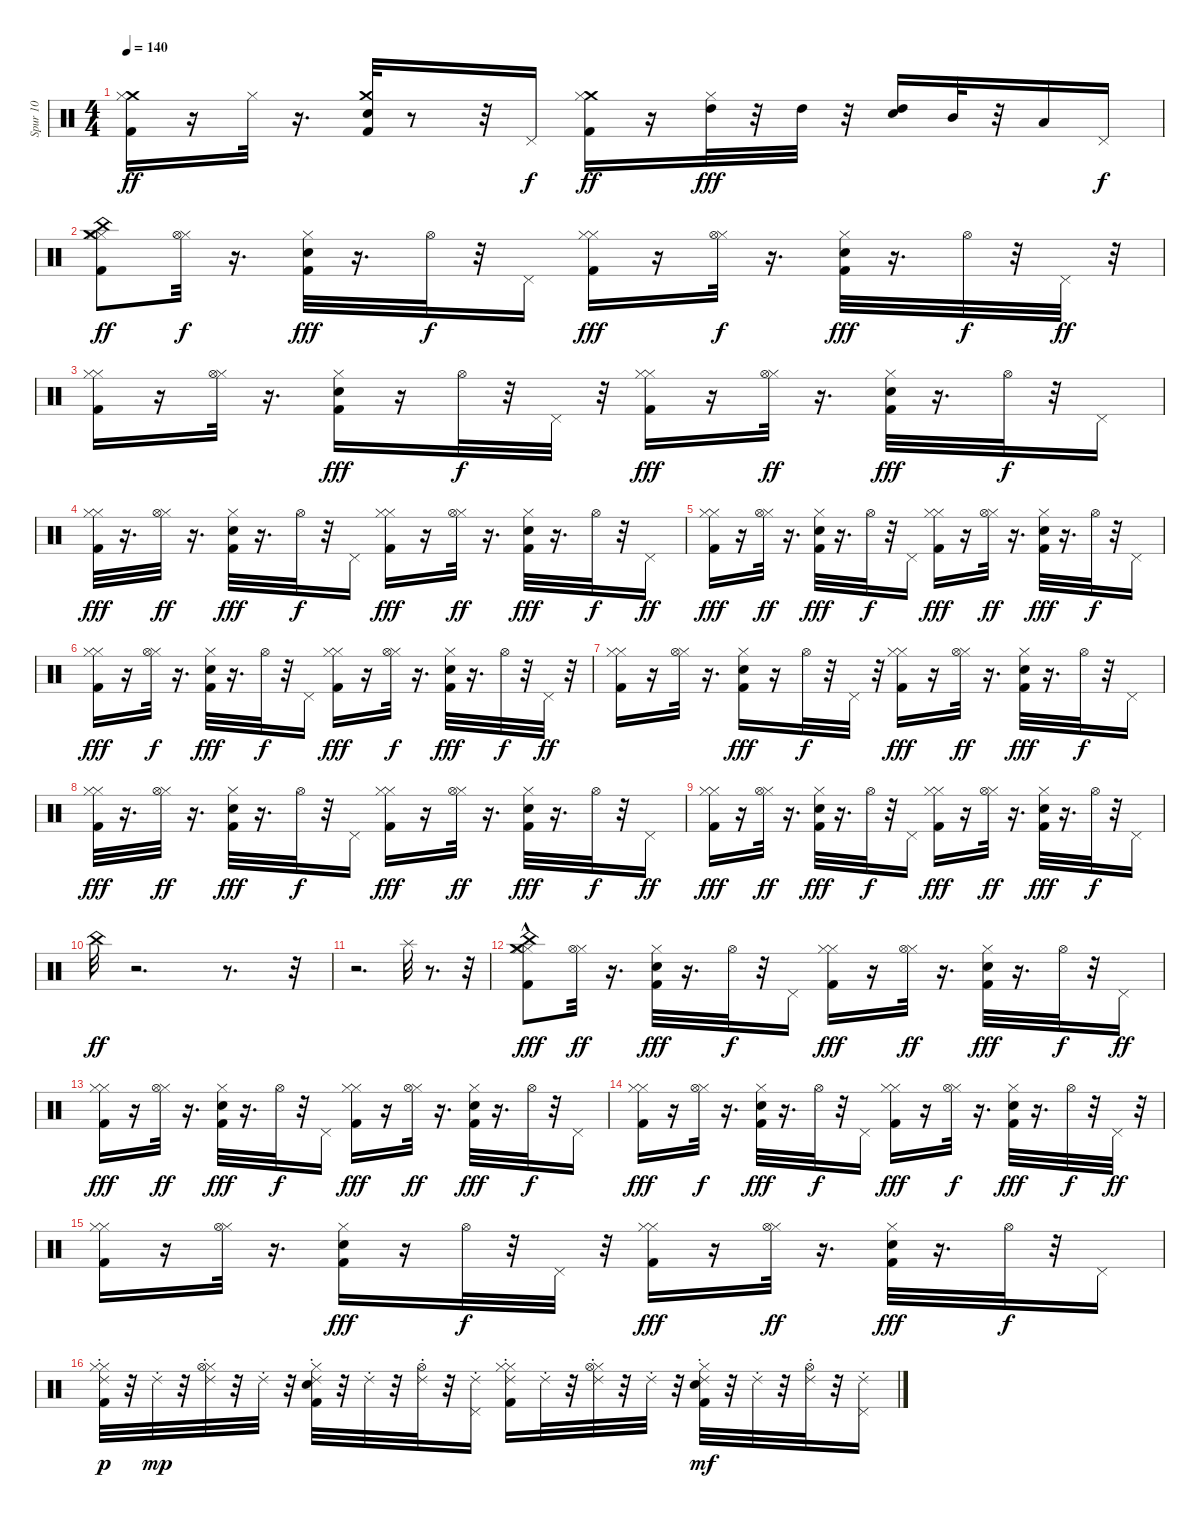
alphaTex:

\track ("Spur 10" "Spur 10") {instrument percussion}
\staff {score}
\articulation defaults
\ts (4 4)
\tempo 140
\clef neutral
\ks c
("Kick (hit) 2" "Crash medium (hit)" "Hi-Hat (closed)").16{dy ff} r.16 "Hi-Hat (closed)".32 r.16{d} ("Kick (hit) 2" "Crash medium (hit)" "Hand Clap (hit)").32 r.8 r.32 "Pedal Hi-Hat (hit)".16{dy f} ("Kick (hit) 2" "Crash medium (hit)" "Hi-Hat (closed)").16{dy ff} r.16 ("Hi-Hat (closed)" "High Tom (hit)").32{dy fff} r.32 "High Tom (hit)".32 r.32 ("High Tom (hit)" "Hand Clap (hit)").16 "Mid Tom (hit)".32 r.32 "Low Tom (hit)".16 "Pedal Hi-Hat (hit)".16{dy f} |
("Kick (hit) 2" "Hi-Hat (closed)" "China (hit)" "Crash medium (hit)" "Hi-Hat (closed)").8{dy ff} ("Hi-Hat (closed)" "Hi-Hat (open)").32{dy f} r.16{d} ("Kick (hit) 2" "Hi-Hat (closed)" "Hand Clap (hit)").32{dy fff} r.16{d} "Hi-Hat (open)".32{dy f} r.32 "Pedal Hi-Hat (hit)".16 ("Kick (hit) 2" "Hi-Hat (closed)" "Hi-Hat (closed)").16{dy fff} r.16 ("Hi-Hat (closed)" "Hi-Hat (open)").32{dy f} r.16{d} ("Kick (hit) 2" "Hi-Hat (closed)" "Hand Clap (hit)").32{dy fff} r.16{d} "Hi-Hat (open)".32{dy f} r.32 "Pedal Hi-Hat (hit)".32{dy ff} r.32 |
("Kick (hit) 2" "Hi-Hat (closed)" "Hi-Hat (closed)").16 r.16 ("Hi-Hat (closed)" "Hi-Hat (open)").32 r.16{d} ("Kick (hit) 2" "Hi-Hat (closed)" "Hand Clap (hit)").16{dy fff} r.16 "Hi-Hat (open)".32{dy f} r.32 "Pedal Hi-Hat (hit)".32 r.32 ("Kick (hit) 2" "Hi-Hat (closed)" "Hi-Hat (closed)").16{dy fff} r.16 ("Hi-Hat (closed)" "Hi-Hat (open)").32{dy ff} r.16{d} ("Kick (hit) 2" "Hi-Hat (closed)" "Hand Clap (hit)").32{dy fff} r.16{d} "Hi-Hat (open)".32{dy f} r.32 "Pedal Hi-Hat (hit)".16 |
("Kick (hit) 2" "Hi-Hat (closed)" "Hi-Hat (closed)").32{dy fff} r.16{d} ("Hi-Hat (closed)" "Hi-Hat (open)").32{dy ff} r.16{d} ("Kick (hit) 2" "Hi-Hat (closed)" "Hand Clap (hit)").32{dy fff} r.16{d} "Hi-Hat (open)".32{dy f} r.32 "Pedal Hi-Hat (hit)".16 ("Kick (hit) 2" "Hi-Hat (closed)" "Hi-Hat (closed)").16{dy fff} r.16 ("Hi-Hat (closed)" "Hi-Hat (open)").32{dy ff} r.16{d} ("Kick (hit) 2" "Hi-Hat (closed)" "Hand Clap (hit)").32{dy fff} r.16{d} "Hi-Hat (open)".32{dy f} r.32 "Pedal Hi-Hat (hit)".16{dy ff} |
("Kick (hit) 2" "Hi-Hat (closed)" "Hi-Hat (closed)").16{dy fff} r.16 ("Hi-Hat (closed)" "Hi-Hat (open)").32{dy ff} r.16{d} ("Kick (hit) 2" "Hi-Hat (closed)" "Hand Clap (hit)").32{dy fff} r.16{d} "Hi-Hat (open)".32{dy f} r.32 "Pedal Hi-Hat (hit)".16 ("Kick (hit) 2" "Hi-Hat (closed)" "Hi-Hat (closed)").16{dy fff} r.16 ("Hi-Hat (closed)" "Hi-Hat (open)").32{dy ff} r.16{d} ("Kick (hit) 2" "Hi-Hat (closed)" "Hand Clap (hit)").32{dy fff} r.16{d} "Hi-Hat (open)".32{dy f} r.32 "Pedal Hi-Hat (hit)".16 |
("Kick (hit) 2" "Hi-Hat (closed)" "Hi-Hat (closed)").16{dy fff} r.16 ("Hi-Hat (closed)" "Hi-Hat (open)").32{dy f} r.16{d} ("Kick (hit) 2" "Hi-Hat (closed)" "Hand Clap (hit)").32{dy fff} r.16{d} "Hi-Hat (open)".32{dy f} r.32 "Pedal Hi-Hat (hit)".16 ("Kick (hit) 2" "Hi-Hat (closed)" "Hi-Hat (closed)").16{dy fff} r.16 ("Hi-Hat (closed)" "Hi-Hat (open)").32{dy f} r.16{d} ("Kick (hit) 2" "Hi-Hat (closed)" "Hand Clap (hit)").32{dy fff} r.16{d} "Hi-Hat (open)".32{dy f} r.32 "Pedal Hi-Hat (hit)".32{dy ff} r.32 |
("Kick (hit) 2" "Hi-Hat (closed)" "Hi-Hat (closed)").16 r.16 ("Hi-Hat (closed)" "Hi-Hat (open)").32 r.16{d} ("Kick (hit) 2" "Hi-Hat (closed)" "Hand Clap (hit)").16{dy fff} r.16 "Hi-Hat (open)".32{dy f} r.32 "Pedal Hi-Hat (hit)".32 r.32 ("Kick (hit) 2" "Hi-Hat (closed)" "Hi-Hat (closed)").16{dy fff} r.16 ("Hi-Hat (closed)" "Hi-Hat (open)").32{dy ff} r.16{d} ("Kick (hit) 2" "Hi-Hat (closed)" "Hand Clap (hit)").32{dy fff} r.16{d} "Hi-Hat (open)".32{dy f} r.32 "Pedal Hi-Hat (hit)".16 |
("Kick (hit) 2" "Hi-Hat (closed)" "Hi-Hat (closed)").32{dy fff} r.16{d} ("Hi-Hat (closed)" "Hi-Hat (open)").32{dy ff} r.16{d} ("Kick (hit) 2" "Hi-Hat (closed)" "Hand Clap (hit)").32{dy fff} r.16{d} "Hi-Hat (open)".32{dy f} r.32 "Pedal Hi-Hat (hit)".16 ("Kick (hit) 2" "Hi-Hat (closed)" "Hi-Hat (closed)").16{dy fff} r.16 ("Hi-Hat (closed)" "Hi-Hat (open)").32{dy ff} r.16{d} ("Kick (hit) 2" "Hi-Hat (closed)" "Hand Clap (hit)").32{dy fff} r.16{d} "Hi-Hat (open)".32{dy f} r.32 "Pedal Hi-Hat (hit)".16{dy ff} |
("Kick (hit) 2" "Hi-Hat (closed)" "Hi-Hat (closed)").16{dy fff} r.16 ("Hi-Hat (closed)" "Hi-Hat (open)").32{dy ff} r.16{d} ("Kick (hit) 2" "Hi-Hat (closed)" "Hand Clap (hit)").32{dy fff} r.16{d} "Hi-Hat (open)".32{dy f} r.32 "Pedal Hi-Hat (hit)".16 ("Kick (hit) 2" "Hi-Hat (closed)" "Hi-Hat (closed)").16{dy fff} r.16 ("Hi-Hat (closed)" "Hi-Hat (open)").32{dy ff} r.16{d} ("Kick (hit) 2" "Hi-Hat (closed)" "Hand Clap (hit)").32{dy fff} r.16{d} "Hi-Hat (open)".32{dy f} r.32 "Pedal Hi-Hat (hit)".16 |
"China (hit)".32{dy ff} r.2{d} r.8{d} r.32 |
r.2{d} "Splash (hit)".32 r.8{d} r.32 |
("Kick (hit) 2" "Hi-Hat (closed)" "Crash medium (hit)"{hac} "China (hit)"{hac} "Hi-Hat (closed)").8{dy fff} ("Hi-Hat (closed)" "Hi-Hat (open)").32{dy ff} r.16{d} ("Kick (hit) 2" "Hi-Hat (closed)" "Hand Clap (hit)").32{dy fff} r.16{d} "Hi-Hat (open)".32{dy f} r.32 "Pedal Hi-Hat (hit)".16 ("Kick (hit) 2" "Hi-Hat (closed)" "Hi-Hat (closed)").16{dy fff} r.16 ("Hi-Hat (closed)" "Hi-Hat (open)").32{dy ff} r.16{d} ("Kick (hit) 2" "Hi-Hat (closed)" "Hand Clap (hit)").32{dy fff} r.16{d} "Hi-Hat (open)".32{dy f} r.32 "Pedal Hi-Hat (hit)".16{dy ff} |
("Kick (hit) 2" "Hi-Hat (closed)" "Hi-Hat (closed)").16{dy fff} r.16 ("Hi-Hat (closed)" "Hi-Hat (open)").32{dy ff} r.16{d} ("Kick (hit) 2" "Hi-Hat (closed)" "Hand Clap (hit)").32{dy fff} r.16{d} "Hi-Hat (open)".32{dy f} r.32 "Pedal Hi-Hat (hit)".16 ("Kick (hit) 2" "Hi-Hat (closed)" "Hi-Hat (closed)").16{dy fff} r.16 ("Hi-Hat (closed)" "Hi-Hat (open)").32{dy ff} r.16{d} ("Kick (hit) 2" "Hi-Hat (closed)" "Hand Clap (hit)").32{dy fff} r.16{d} "Hi-Hat (open)".32{dy f} r.32 "Pedal Hi-Hat (hit)".16 |
("Kick (hit) 2" "Hi-Hat (closed)" "Hi-Hat (closed)").16{dy fff} r.16 ("Hi-Hat (closed)" "Hi-Hat (open)").32{dy f} r.16{d} ("Kick (hit) 2" "Hi-Hat (closed)" "Hand Clap (hit)").32{dy fff} r.16{d} "Hi-Hat (open)".32{dy f} r.32 "Pedal Hi-Hat (hit)".16 ("Kick (hit) 2" "Hi-Hat (closed)" "Hi-Hat (closed)").16{dy fff} r.16 ("Hi-Hat (closed)" "Hi-Hat (open)").32{dy f} r.16{d} ("Kick (hit) 2" "Hi-Hat (closed)" "Hand Clap (hit)").32{dy fff} r.16{d} "Hi-Hat (open)".32{dy f} r.32 "Pedal Hi-Hat (hit)".32{dy ff} r.32 |
("Kick (hit) 2" "Hi-Hat (closed)" "Hi-Hat (closed)").16 r.16 ("Hi-Hat (closed)" "Hi-Hat (open)").32 r.16{d} ("Kick (hit) 2" "Hi-Hat (closed)" "Hand Clap (hit)").16{dy fff} r.16 "Hi-Hat (open)".32{dy f} r.32 "Pedal Hi-Hat (hit)".32 r.32 ("Kick (hit) 2" "Hi-Hat (closed)" "Hi-Hat (closed)").16{dy fff} r.16 ("Hi-Hat (closed)" "Hi-Hat (open)").32{dy ff} r.16{d} ("Kick (hit) 2" "Hi-Hat (closed)" "Hand Clap (hit)").32{dy fff} r.16{d} "Hi-Hat (open)".32{dy f} r.32 "Pedal Hi-Hat (hit)".16 |
("Kick (hit) 2" "Hi-Hat (closed)" "Hi-Hat (closed)" "Ride (choke) 2").32{dy p} r.32 "Ride (choke) 2".32{dy mp} r.32 ("Hi-Hat (closed)" "Hi-Hat (open)" "Ride (choke) 2").32 r.32 "Ride (choke) 2".32 r.32 ("Kick (hit) 2" "Hi-Hat (closed)" "Ride (choke) 2" "Hand Clap (hit)").32 r.32 "Ride (choke) 2".32 r.32 ("Hi-Hat (open)" "Ride (choke) 2").32 r.32 ("Pedal Hi-Hat (hit)" "Ride (choke) 2").16 ("Kick (hit) 2" "Hi-Hat (closed)" "Hi-Hat (closed)" "Ride (choke) 2").16 "Ride (choke) 2".32 r.32 ("Hi-Hat (closed)" "Hi-Hat (open)" "Ride (choke) 2").32 r.32 "Ride (choke) 2".32 r.32 ("Kick (hit) 2" "Hi-Hat (closed)" "Ride (choke) 2" "Hand Clap (hit)").32{dy mf} r.32 "Ride (choke) 2".32 r.32 ("Hi-Hat (open)" "Ride (choke) 2").32 r.32 ("Pedal Hi-Hat (hit)" "Ride (choke) 2").16
